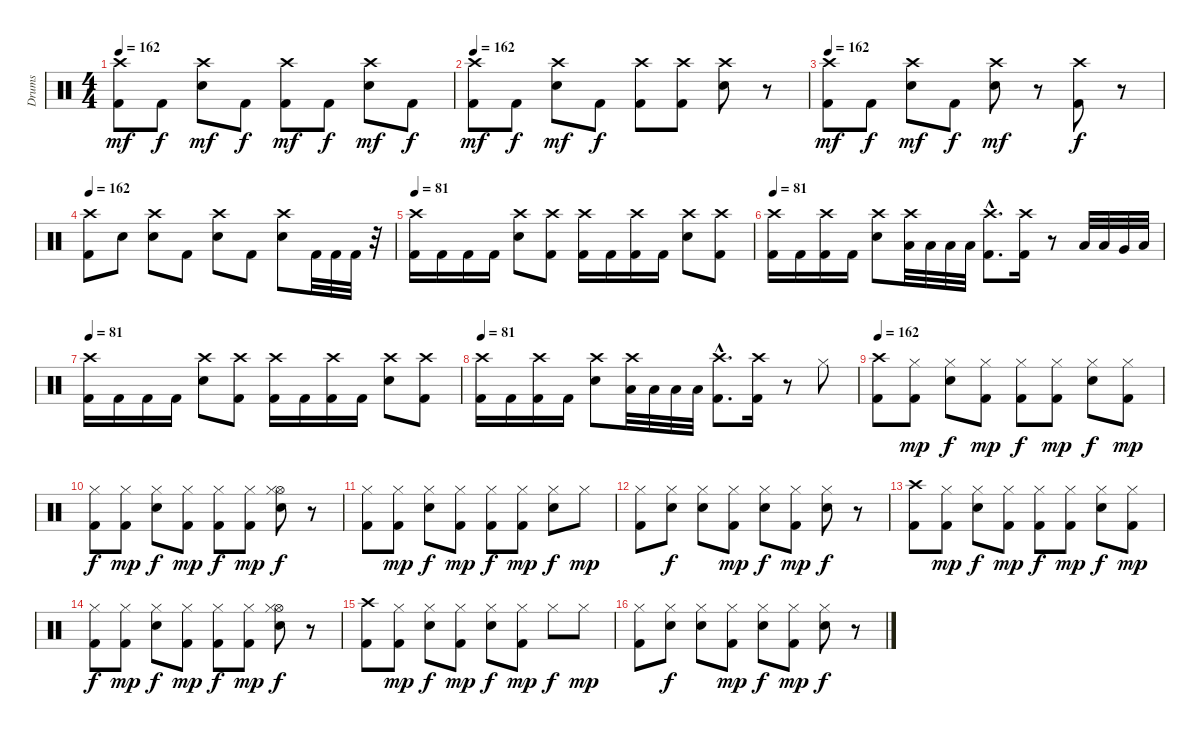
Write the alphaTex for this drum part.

\track ("Drums" "Drums") {instrument percussion}
\staff {score}
\articulation defaults
\ts (4 4)
\tempo 162
\clef neutral
\ks c
("Crash high (hit)" "Kick (hit) 2").8{dy mf} "Kick (hit) 2".8{dy f} ("Crash high (hit)" "Electric Snare (hit)").8{dy mf} "Kick (hit) 2".8{dy f} ("Crash high (hit)" "Kick (hit) 2").8{dy mf} "Kick (hit) 2".8{dy f} ("Crash high (hit)" "Electric Snare (hit)").8{dy mf} "Kick (hit) 2".8{dy f} |
\tempo 162
("Crash high (hit)" "Kick (hit) 2").8{dy mf} "Kick (hit) 2".8{dy f} ("Crash high (hit)" "Electric Snare (hit)").8{dy mf} "Kick (hit) 2".8{dy f} ("Crash high (hit)" "Kick (hit) 2").8 ("Crash high (hit)" "Kick (hit) 2").8 ("Crash high (hit)" "Electric Snare (hit)").8 r.8 |
\tempo 162
("Crash high (hit)" "Kick (hit) 2").8{dy mf} "Kick (hit) 2".8{dy f} ("Crash high (hit)" "Electric Snare (hit)").8{dy mf} "Kick (hit) 2".8{dy f} ("Crash high (hit)" "Electric Snare (hit)").8{dy mf} r.8 ("Crash high (hit)" "Kick (hit) 2").8{dy f} r.8 |
\tempo 162
("Crash high (hit)" "Kick (hit) 2").8 "Electric Snare (hit)".8 ("Crash high (hit)" "Electric Snare (hit)").8 "Kick (hit) 2".8 ("Crash high (hit)" "Electric Snare (hit)").8 "Kick (hit) 2".8 ("Crash high (hit)" "Electric Snare (hit)").8 "Kick (hit) 2".32 "Kick (hit) 2".32 "Kick (hit) 2".32 r.32 |
\tempo 81
("Crash high (hit)" "Kick (hit) 2").16 "Kick (hit) 2".16 "Kick (hit) 2".16 "Kick (hit) 2".16 ("Crash high (hit)" "Electric Snare (hit)").8 ("Crash high (hit)" "Kick (hit) 2").8 ("Crash high (hit)" "Kick (hit) 2").16 "Kick (hit) 2".16 ("Crash high (hit)" "Kick (hit) 2").16 "Kick (hit) 2".16 ("Crash high (hit)" "Electric Snare (hit)").8 ("Crash high (hit)" "Kick (hit) 2").8 |
\tempo 81
("Crash high (hit)" "Kick (hit) 2").16 "Kick (hit) 2".16 ("Crash high (hit)" "Kick (hit) 2").16 "Kick (hit) 2".16 ("Crash high (hit)" "Electric Snare (hit)").8 ("Crash high (hit)" "Low Floor Tom (hit)").32 "Low Floor Tom (hit)".32 "Low Floor Tom (hit)".32 "Low Floor Tom (hit)".32 ("Crash high (hit)"{hac} "Kick (hit) 2"{hac}).8{d} ("Crash high (hit)" "Kick (hit) 2").16 r.8 "Low Tom (hit)".32 "Low Tom (hit)".32 "Very Low Tom (hit)".32 "Low Floor Tom (hit)".32 |
\tempo 81
("Crash high (hit)" "Kick (hit) 2").16 "Kick (hit) 2".16 "Kick (hit) 2".16 "Kick (hit) 2".16 ("Crash high (hit)" "Electric Snare (hit)").8 ("Crash high (hit)" "Kick (hit) 2").8 ("Crash high (hit)" "Kick (hit) 2").16 "Kick (hit) 2".16 ("Crash high (hit)" "Kick (hit) 2").16 "Kick (hit) 2".16 ("Crash high (hit)" "Electric Snare (hit)").8 ("Crash high (hit)" "Kick (hit) 2").8 |
\tempo 81
("Crash high (hit)" "Kick (hit) 2").16 "Kick (hit) 2".16 ("Crash high (hit)" "Kick (hit) 2").16 "Kick (hit) 2".16 ("Crash high (hit)" "Electric Snare (hit)").8 ("Crash high (hit)" "Low Floor Tom (hit)").32 "Low Floor Tom (hit)".32 "Low Floor Tom (hit)".32 "Low Floor Tom (hit)".32 ("Crash high (hit)"{hac} "Kick (hit) 2"{hac}).8{d} ("Crash high (hit)" "Kick (hit) 2").16 r.8 "Hi-Hat (closed)".8 |
\tempo 162
("Crash high (hit)" "Kick (hit) 2").8 ("Hi-Hat (closed)" "Kick (hit) 2").8{dy mp} ("Hi-Hat (closed)" "Electric Snare (hit)").8{dy f} ("Hi-Hat (closed)" "Kick (hit) 2").8{dy mp} ("Hi-Hat (closed)" "Kick (hit) 2").8{dy f} ("Hi-Hat (closed)" "Kick (hit) 2").8{dy mp} ("Hi-Hat (closed)" "Electric Snare (hit)").8{dy f} ("Hi-Hat (closed)" "Kick (hit) 2").8{dy mp} |
("Hi-Hat (closed)" "Kick (hit) 2").8{dy f} ("Hi-Hat (closed)" "Kick (hit) 2").8{dy mp} ("Hi-Hat (closed)" "Electric Snare (hit)").8{dy f} ("Hi-Hat (closed)" "Kick (hit) 2").8{dy mp} ("Hi-Hat (closed)" "Kick (hit) 2").8{dy f} ("Hi-Hat (closed)" "Kick (hit) 2").8{dy mp} ("Hi-Hat (open)" "Hi-Hat (closed)" "Electric Snare (hit)").8{dy f} r.8 |
("Hi-Hat (closed)" "Kick (hit) 2").8 ("Hi-Hat (closed)" "Kick (hit) 2").8{dy mp} ("Hi-Hat (closed)" "Electric Snare (hit)").8{dy f} ("Hi-Hat (closed)" "Kick (hit) 2").8{dy mp} ("Hi-Hat (closed)" "Kick (hit) 2").8{dy f} ("Hi-Hat (closed)" "Kick (hit) 2").8{dy mp} ("Hi-Hat (closed)" "Electric Snare (hit)").8{dy f} "Hi-Hat (closed)".8{dy mp} |
("Hi-Hat (closed)" "Kick (hit) 2").8 ("Hi-Hat (closed)" "Electric Snare (hit)").8{dy f} ("Hi-Hat (closed)" "Electric Snare (hit)").8 ("Hi-Hat (closed)" "Kick (hit) 2").8{dy mp} ("Hi-Hat (closed)" "Electric Snare (hit)").8{dy f} ("Hi-Hat (closed)" "Kick (hit) 2").8{dy mp} ("Hi-Hat (closed)" "Electric Snare (hit)").8{dy f} r.8 |
("Crash high (hit)" "Kick (hit) 2").8 ("Hi-Hat (closed)" "Kick (hit) 2").8{dy mp} ("Hi-Hat (closed)" "Electric Snare (hit)").8{dy f} ("Hi-Hat (closed)" "Kick (hit) 2").8{dy mp} ("Hi-Hat (closed)" "Kick (hit) 2").8{dy f} ("Hi-Hat (closed)" "Kick (hit) 2").8{dy mp} ("Hi-Hat (closed)" "Electric Snare (hit)").8{dy f} ("Hi-Hat (closed)" "Kick (hit) 2").8{dy mp} |
("Hi-Hat (closed)" "Kick (hit) 2").8{dy f} ("Hi-Hat (closed)" "Kick (hit) 2").8{dy mp} ("Hi-Hat (closed)" "Electric Snare (hit)").8{dy f} ("Hi-Hat (closed)" "Kick (hit) 2").8{dy mp} ("Hi-Hat (closed)" "Kick (hit) 2").8{dy f} ("Hi-Hat (closed)" "Kick (hit) 2").8{dy mp} ("Hi-Hat (open)" "Hi-Hat (closed)" "Electric Snare (hit)").8{dy f} r.8 |
("Crash high (hit)" "Kick (hit) 2").8 ("Hi-Hat (closed)" "Kick (hit) 2").8{dy mp} ("Hi-Hat (closed)" "Electric Snare (hit)").8{dy f} ("Hi-Hat (closed)" "Kick (hit) 2").8{dy mp} ("Hi-Hat (closed)" "Electric Snare (hit)").8{dy f} ("Hi-Hat (closed)" "Kick (hit) 2").8{dy mp} "Hi-Hat (closed)".8{dy f} "Hi-Hat (closed)".8{dy mp} |
("Hi-Hat (closed)" "Kick (hit) 2").8 ("Hi-Hat (closed)" "Electric Snare (hit)").8{dy f} ("Hi-Hat (closed)" "Electric Snare (hit)").8 ("Hi-Hat (closed)" "Kick (hit) 2").8{dy mp} ("Hi-Hat (closed)" "Electric Snare (hit)").8{dy f} ("Hi-Hat (closed)" "Kick (hit) 2").8{dy mp} ("Hi-Hat (closed)" "Electric Snare (hit)").8{dy f} r.8
